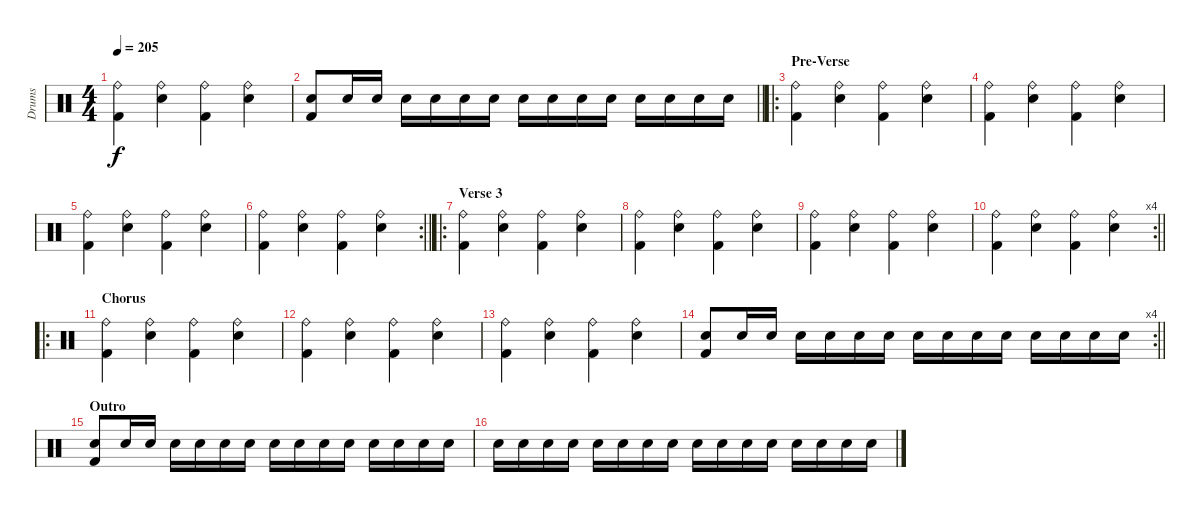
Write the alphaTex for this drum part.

\track ("Drums" "Drums") {instrument percussion}
\staff {score}
\articulation defaults
\ts (4 4)
\tempo 205
\clef neutral
\ks c
("Ride (bell)" "Kick (hit) 2").4{dy f} ("Ride (bell)" "Snare (hit) 2").4 ("Ride (bell)" "Kick (hit) 2").4 ("Ride (bell)" "Snare (hit) 2").4 |
\barLineRight lightlight
("Snare (hit) 2" "Kick (hit) 2").8 "Snare (hit) 2".16 "Snare (hit) 2".16 "Snare (hit) 2".16 "Snare (hit) 2".16 "Snare (hit) 2".16 "Snare (hit) 2".16 "Snare (hit) 2".16 "Snare (hit) 2".16 "Snare (hit) 2".16 "Snare (hit) 2".16 "Snare (hit) 2".16 "Snare (hit) 2".16 "Snare (hit) 2".16 "Snare (hit) 2".16 |
\ro
\section ("" "Pre-Verse")
("Ride (bell)" "Kick (hit) 2").4 ("Ride (bell)" "Snare (hit) 2").4 ("Ride (bell)" "Kick (hit) 2").4 ("Ride (bell)" "Snare (hit) 2").4 |
("Ride (bell)" "Kick (hit) 2").4 ("Ride (bell)" "Snare (hit) 2").4 ("Ride (bell)" "Kick (hit) 2").4 ("Ride (bell)" "Snare (hit) 2").4 |
("Ride (bell)" "Kick (hit) 2").4 ("Ride (bell)" "Snare (hit) 2").4 ("Ride (bell)" "Kick (hit) 2").4 ("Ride (bell)" "Snare (hit) 2").4 |
\rc 2
\barLineRight lightlight
("Ride (bell)" "Kick (hit) 2").4 ("Ride (bell)" "Snare (hit) 2").4 ("Ride (bell)" "Kick (hit) 2").4 ("Ride (bell)" "Snare (hit) 2").4 |
\ro
\section ("" "Verse 3")
("Ride (bell)" "Kick (hit) 2").4 ("Ride (bell)" "Snare (hit) 2").4 ("Ride (bell)" "Kick (hit) 2").4 ("Ride (bell)" "Snare (hit) 2").4 |
("Ride (bell)" "Kick (hit) 2").4 ("Ride (bell)" "Snare (hit) 2").4 ("Ride (bell)" "Kick (hit) 2").4 ("Ride (bell)" "Snare (hit) 2").4 |
("Ride (bell)" "Kick (hit) 2").4 ("Ride (bell)" "Snare (hit) 2").4 ("Ride (bell)" "Kick (hit) 2").4 ("Ride (bell)" "Snare (hit) 2").4 |
\rc 4
\barLineRight lightlight
("Ride (bell)" "Kick (hit) 2").4 ("Ride (bell)" "Snare (hit) 2").4 ("Ride (bell)" "Kick (hit) 2").4 ("Ride (bell)" "Snare (hit) 2").4 |
\ro
\section ("" "Chorus")
("Ride (bell)" "Kick (hit) 2").4 ("Ride (bell)" "Snare (hit) 2").4 ("Ride (bell)" "Kick (hit) 2").4 ("Ride (bell)" "Snare (hit) 2").4 |
("Ride (bell)" "Kick (hit) 2").4 ("Ride (bell)" "Snare (hit) 2").4 ("Ride (bell)" "Kick (hit) 2").4 ("Ride (bell)" "Snare (hit) 2").4 |
("Ride (bell)" "Kick (hit) 2").4 ("Ride (bell)" "Snare (hit) 2").4 ("Ride (bell)" "Kick (hit) 2").4 ("Ride (bell)" "Snare (hit) 2").4 |
\rc 4
\barLineRight lightlight
("Snare (hit) 2" "Kick (hit) 2").8 "Snare (hit) 2".16 "Snare (hit) 2".16 "Snare (hit) 2".16 "Snare (hit) 2".16 "Snare (hit) 2".16 "Snare (hit) 2".16 "Snare (hit) 2".16 "Snare (hit) 2".16 "Snare (hit) 2".16 "Snare (hit) 2".16 "Snare (hit) 2".16 "Snare (hit) 2".16 "Snare (hit) 2".16 "Snare (hit) 2".16 |
\section ("" "Outro")
("Snare (hit) 2" "Kick (hit) 2").8 "Snare (hit) 2".16 "Snare (hit) 2".16 "Snare (hit) 2".16 "Snare (hit) 2".16 "Snare (hit) 2".16 "Snare (hit) 2".16 "Snare (hit) 2".16 "Snare (hit) 2".16 "Snare (hit) 2".16 "Snare (hit) 2".16 "Snare (hit) 2".16 "Snare (hit) 2".16 "Snare (hit) 2".16 "Snare (hit) 2".16 |
"Snare (hit) 2".16 "Snare (hit) 2".16 "Snare (hit) 2".16 "Snare (hit) 2".16 "Snare (hit) 2".16 "Snare (hit) 2".16 "Snare (hit) 2".16 "Snare (hit) 2".16 "Snare (hit) 2".16 "Snare (hit) 2".16 "Snare (hit) 2".16 "Snare (hit) 2".16 "Snare (hit) 2".16 "Snare (hit) 2".16 "Snare (hit) 2".16 "Snare (hit) 2".16
